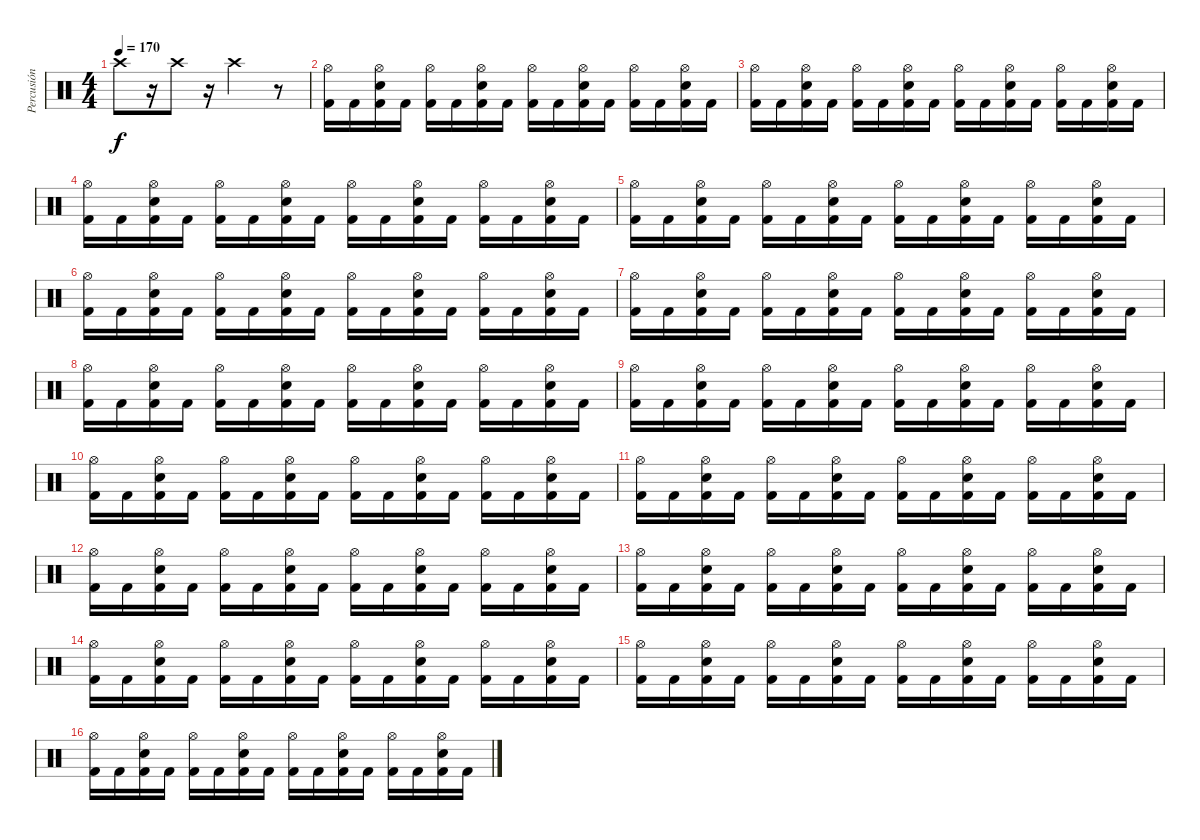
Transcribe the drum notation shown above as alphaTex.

\track ("Percusión" "Percusión") {instrument percussion}
\staff {score}
\articulation defaults
\ts (4 4)
\tempo 170
\clef neutral
\ks c "Crash high (hit)".8{dy f}
r.16 "Crash high (hit)".8 r.16 "Crash high (hit)".2 r.8 |
("Kick (hit) 2" "Hi-Hat (open)").16 "Kick (hit) 2".16 ("Kick (hit) 2" "Hi-Hat (open)" "Snare (hit) 2").16 "Kick (hit) 2".16 ("Kick (hit) 2" "Hi-Hat (open)").16 "Kick (hit) 2".16 ("Kick (hit) 2" "Hi-Hat (open)" "Snare (hit) 2").16 "Kick (hit) 2".16 ("Kick (hit) 2" "Hi-Hat (open)").16 "Kick (hit) 2".16 ("Kick (hit) 2" "Hi-Hat (open)" "Snare (hit) 2").16 "Kick (hit) 2".16 ("Kick (hit) 2" "Hi-Hat (open)").16 "Kick (hit) 2".16 ("Kick (hit) 2" "Hi-Hat (open)" "Snare (hit) 2").16 "Kick (hit) 2".16 |
("Kick (hit) 2" "Hi-Hat (open)").16 "Kick (hit) 2".16 ("Kick (hit) 2" "Hi-Hat (open)" "Snare (hit) 2").16 "Kick (hit) 2".16 ("Kick (hit) 2" "Hi-Hat (open)").16 "Kick (hit) 2".16 ("Kick (hit) 2" "Hi-Hat (open)" "Snare (hit) 2").16 "Kick (hit) 2".16 ("Kick (hit) 2" "Hi-Hat (open)").16 "Kick (hit) 2".16 ("Kick (hit) 2" "Hi-Hat (open)" "Snare (hit) 2").16 "Kick (hit) 2".16 ("Kick (hit) 2" "Hi-Hat (open)").16 "Kick (hit) 2".16 ("Kick (hit) 2" "Hi-Hat (open)" "Snare (hit) 2").16 "Kick (hit) 2".16 |
("Kick (hit) 2" "Hi-Hat (open)").16 "Kick (hit) 2".16 ("Kick (hit) 2" "Hi-Hat (open)" "Snare (hit) 2").16 "Kick (hit) 2".16 ("Kick (hit) 2" "Hi-Hat (open)").16 "Kick (hit) 2".16 ("Kick (hit) 2" "Hi-Hat (open)" "Snare (hit) 2").16 "Kick (hit) 2".16 ("Kick (hit) 2" "Hi-Hat (open)").16 "Kick (hit) 2".16 ("Kick (hit) 2" "Hi-Hat (open)" "Snare (hit) 2").16 "Kick (hit) 2".16 ("Kick (hit) 2" "Hi-Hat (open)").16 "Kick (hit) 2".16 ("Kick (hit) 2" "Hi-Hat (open)" "Snare (hit) 2").16 "Kick (hit) 2".16 |
("Kick (hit) 2" "Hi-Hat (open)").16 "Kick (hit) 2".16 ("Kick (hit) 2" "Hi-Hat (open)" "Snare (hit) 2").16 "Kick (hit) 2".16 ("Kick (hit) 2" "Hi-Hat (open)").16 "Kick (hit) 2".16 ("Kick (hit) 2" "Hi-Hat (open)" "Snare (hit) 2").16 "Kick (hit) 2".16 ("Kick (hit) 2" "Hi-Hat (open)").16 "Kick (hit) 2".16 ("Kick (hit) 2" "Hi-Hat (open)" "Snare (hit) 2").16 "Kick (hit) 2".16 ("Kick (hit) 2" "Hi-Hat (open)").16 "Kick (hit) 2".16 ("Kick (hit) 2" "Hi-Hat (open)" "Snare (hit) 2").16 "Kick (hit) 2".16 |
("Kick (hit) 2" "Hi-Hat (open)").16 "Kick (hit) 2".16 ("Kick (hit) 2" "Hi-Hat (open)" "Snare (hit) 2").16 "Kick (hit) 2".16 ("Kick (hit) 2" "Hi-Hat (open)").16 "Kick (hit) 2".16 ("Kick (hit) 2" "Hi-Hat (open)" "Snare (hit) 2").16 "Kick (hit) 2".16 ("Kick (hit) 2" "Hi-Hat (open)").16 "Kick (hit) 2".16 ("Kick (hit) 2" "Hi-Hat (open)" "Snare (hit) 2").16 "Kick (hit) 2".16 ("Kick (hit) 2" "Hi-Hat (open)").16 "Kick (hit) 2".16 ("Kick (hit) 2" "Hi-Hat (open)" "Snare (hit) 2").16 "Kick (hit) 2".16 |
("Kick (hit) 2" "Hi-Hat (open)").16 "Kick (hit) 2".16 ("Kick (hit) 2" "Hi-Hat (open)" "Snare (hit) 2").16 "Kick (hit) 2".16 ("Kick (hit) 2" "Hi-Hat (open)").16 "Kick (hit) 2".16 ("Kick (hit) 2" "Hi-Hat (open)" "Snare (hit) 2").16 "Kick (hit) 2".16 ("Kick (hit) 2" "Hi-Hat (open)").16 "Kick (hit) 2".16 ("Kick (hit) 2" "Hi-Hat (open)" "Snare (hit) 2").16 "Kick (hit) 2".16 ("Kick (hit) 2" "Hi-Hat (open)").16 "Kick (hit) 2".16 ("Kick (hit) 2" "Hi-Hat (open)" "Snare (hit) 2").16 "Kick (hit) 2".16 |
("Kick (hit) 2" "Hi-Hat (open)").16 "Kick (hit) 2".16 ("Kick (hit) 2" "Hi-Hat (open)" "Snare (hit) 2").16 "Kick (hit) 2".16 ("Kick (hit) 2" "Hi-Hat (open)").16 "Kick (hit) 2".16 ("Kick (hit) 2" "Hi-Hat (open)" "Snare (hit) 2").16 "Kick (hit) 2".16 ("Kick (hit) 2" "Hi-Hat (open)").16 "Kick (hit) 2".16 ("Kick (hit) 2" "Hi-Hat (open)" "Snare (hit) 2").16 "Kick (hit) 2".16 ("Kick (hit) 2" "Hi-Hat (open)").16 "Kick (hit) 2".16 ("Kick (hit) 2" "Hi-Hat (open)" "Snare (hit) 2").16 "Kick (hit) 2".16 |
("Kick (hit) 2" "Hi-Hat (open)").16 "Kick (hit) 2".16 ("Kick (hit) 2" "Hi-Hat (open)" "Snare (hit) 2").16 "Kick (hit) 2".16 ("Kick (hit) 2" "Hi-Hat (open)").16 "Kick (hit) 2".16 ("Kick (hit) 2" "Hi-Hat (open)" "Snare (hit) 2").16 "Kick (hit) 2".16 ("Kick (hit) 2" "Hi-Hat (open)").16 "Kick (hit) 2".16 ("Kick (hit) 2" "Hi-Hat (open)" "Snare (hit) 2").16 "Kick (hit) 2".16 ("Kick (hit) 2" "Hi-Hat (open)").16 "Kick (hit) 2".16 ("Kick (hit) 2" "Hi-Hat (open)" "Snare (hit) 2").16 "Kick (hit) 2".16 |
("Kick (hit) 2" "Hi-Hat (open)").16 "Kick (hit) 2".16 ("Kick (hit) 2" "Hi-Hat (open)" "Snare (hit) 2").16 "Kick (hit) 2".16 ("Kick (hit) 2" "Hi-Hat (open)").16 "Kick (hit) 2".16 ("Kick (hit) 2" "Hi-Hat (open)" "Snare (hit) 2").16 "Kick (hit) 2".16 ("Kick (hit) 2" "Hi-Hat (open)").16 "Kick (hit) 2".16 ("Kick (hit) 2" "Hi-Hat (open)" "Snare (hit) 2").16 "Kick (hit) 2".16 ("Kick (hit) 2" "Hi-Hat (open)").16 "Kick (hit) 2".16 ("Kick (hit) 2" "Hi-Hat (open)" "Snare (hit) 2").16 "Kick (hit) 2".16 |
("Kick (hit) 2" "Hi-Hat (open)").16 "Kick (hit) 2".16 ("Kick (hit) 2" "Hi-Hat (open)" "Snare (hit) 2").16 "Kick (hit) 2".16 ("Kick (hit) 2" "Hi-Hat (open)").16 "Kick (hit) 2".16 ("Kick (hit) 2" "Hi-Hat (open)" "Snare (hit) 2").16 "Kick (hit) 2".16 ("Kick (hit) 2" "Hi-Hat (open)").16 "Kick (hit) 2".16 ("Kick (hit) 2" "Hi-Hat (open)" "Snare (hit) 2").16 "Kick (hit) 2".16 ("Kick (hit) 2" "Hi-Hat (open)").16 "Kick (hit) 2".16 ("Kick (hit) 2" "Hi-Hat (open)" "Snare (hit) 2").16 "Kick (hit) 2".16 |
("Kick (hit) 2" "Hi-Hat (open)").16 "Kick (hit) 2".16 ("Kick (hit) 2" "Hi-Hat (open)" "Snare (hit) 2").16 "Kick (hit) 2".16 ("Kick (hit) 2" "Hi-Hat (open)").16 "Kick (hit) 2".16 ("Kick (hit) 2" "Hi-Hat (open)" "Snare (hit) 2").16 "Kick (hit) 2".16 ("Kick (hit) 2" "Hi-Hat (open)").16 "Kick (hit) 2".16 ("Kick (hit) 2" "Hi-Hat (open)" "Snare (hit) 2").16 "Kick (hit) 2".16 ("Kick (hit) 2" "Hi-Hat (open)").16 "Kick (hit) 2".16 ("Kick (hit) 2" "Hi-Hat (open)" "Snare (hit) 2").16 "Kick (hit) 2".16 |
("Kick (hit) 2" "Hi-Hat (open)").16 "Kick (hit) 2".16 ("Kick (hit) 2" "Hi-Hat (open)" "Snare (hit) 2").16 "Kick (hit) 2".16 ("Kick (hit) 2" "Hi-Hat (open)").16 "Kick (hit) 2".16 ("Kick (hit) 2" "Hi-Hat (open)" "Snare (hit) 2").16 "Kick (hit) 2".16 ("Kick (hit) 2" "Hi-Hat (open)").16 "Kick (hit) 2".16 ("Kick (hit) 2" "Hi-Hat (open)" "Snare (hit) 2").16 "Kick (hit) 2".16 ("Kick (hit) 2" "Hi-Hat (open)").16 "Kick (hit) 2".16 ("Kick (hit) 2" "Hi-Hat (open)" "Snare (hit) 2").16 "Kick (hit) 2".16 |
("Kick (hit) 2" "Hi-Hat (open)").16 "Kick (hit) 2".16 ("Kick (hit) 2" "Hi-Hat (open)" "Snare (hit) 2").16 "Kick (hit) 2".16 ("Kick (hit) 2" "Hi-Hat (open)").16 "Kick (hit) 2".16 ("Kick (hit) 2" "Hi-Hat (open)" "Snare (hit) 2").16 "Kick (hit) 2".16 ("Kick (hit) 2" "Hi-Hat (open)").16 "Kick (hit) 2".16 ("Kick (hit) 2" "Hi-Hat (open)" "Snare (hit) 2").16 "Kick (hit) 2".16 ("Kick (hit) 2" "Hi-Hat (open)").16 "Kick (hit) 2".16 ("Kick (hit) 2" "Hi-Hat (open)" "Snare (hit) 2").16 "Kick (hit) 2".16 |
("Kick (hit) 2" "Hi-Hat (open)").16 "Kick (hit) 2".16 ("Kick (hit) 2" "Hi-Hat (open)" "Snare (hit) 2").16 "Kick (hit) 2".16 ("Kick (hit) 2" "Hi-Hat (open)").16 "Kick (hit) 2".16 ("Kick (hit) 2" "Hi-Hat (open)" "Snare (hit) 2").16 "Kick (hit) 2".16 ("Kick (hit) 2" "Hi-Hat (open)").16 "Kick (hit) 2".16 ("Kick (hit) 2" "Hi-Hat (open)" "Snare (hit) 2").16 "Kick (hit) 2".16 ("Kick (hit) 2" "Hi-Hat (open)").16 "Kick (hit) 2".16 ("Kick (hit) 2" "Hi-Hat (open)" "Snare (hit) 2").16 "Kick (hit) 2".16 |
("Kick (hit) 2" "Hi-Hat (open)").16 "Kick (hit) 2".16 ("Kick (hit) 2" "Hi-Hat (open)" "Snare (hit) 2").16 "Kick (hit) 2".16 ("Kick (hit) 2" "Hi-Hat (open)").16 "Kick (hit) 2".16 ("Kick (hit) 2" "Hi-Hat (open)" "Snare (hit) 2").16 "Kick (hit) 2".16 ("Kick (hit) 2" "Hi-Hat (open)").16 "Kick (hit) 2".16 ("Kick (hit) 2" "Hi-Hat (open)" "Snare (hit) 2").16 "Kick (hit) 2".16 ("Kick (hit) 2" "Hi-Hat (open)").16 "Kick (hit) 2".16 ("Kick (hit) 2" "Hi-Hat (open)" "Snare (hit) 2").16 "Kick (hit) 2".16
